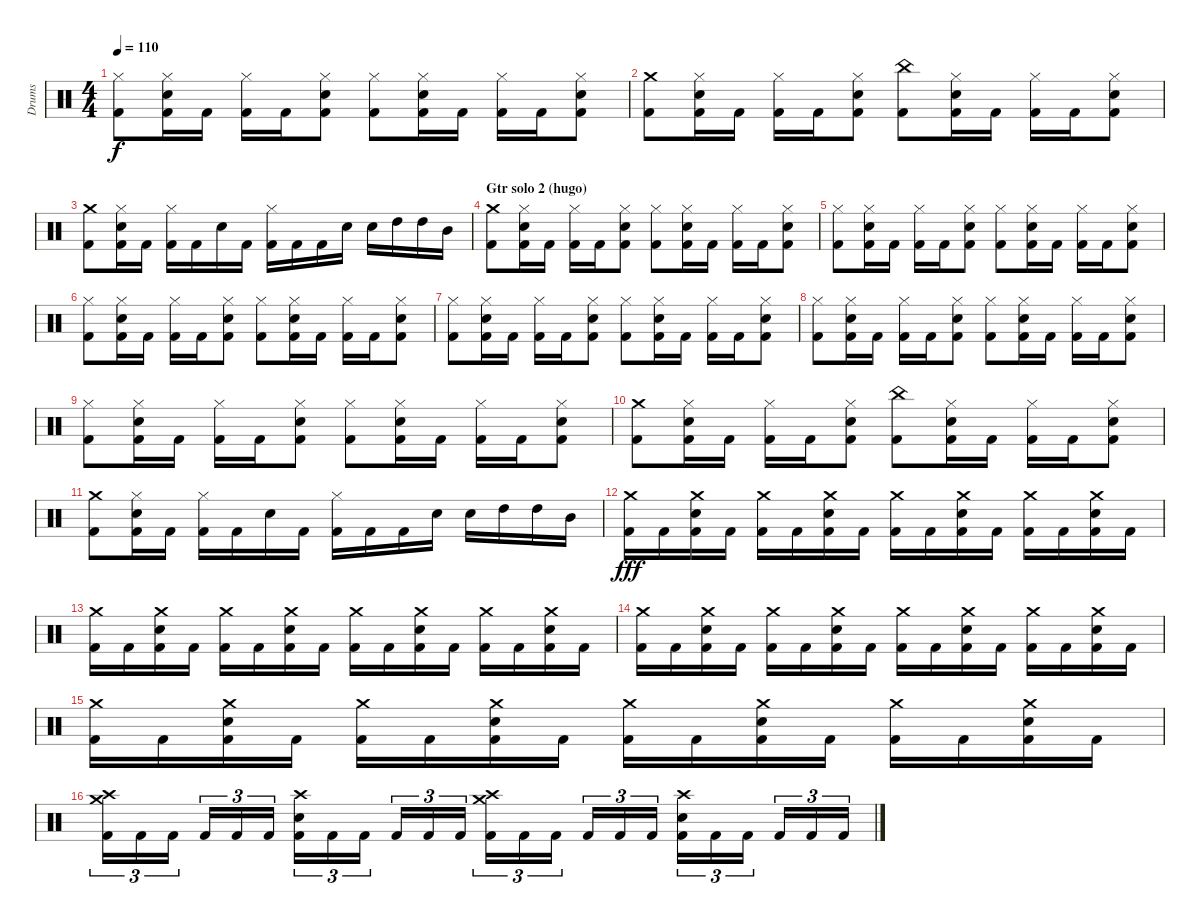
\track ("Drums" "Drums") {instrument percussion}
\staff {score}
\articulation defaults
\ts (4 4)
\tempo 110
\clef neutral
\ks c
("Hi-Hat (closed)" "Kick (hit) 2").8{dy f} ("Hi-Hat (closed)" "Electric Snare (hit)" "Kick (hit) 2").16 "Kick (hit) 2".16 ("Hi-Hat (closed)" "Kick (hit) 2").16 "Kick (hit) 2".16 ("Hi-Hat (closed)" "Electric Snare (hit)" "Kick (hit) 2").8 ("Hi-Hat (closed)" "Kick (hit) 2").8 ("Hi-Hat (closed)" "Electric Snare (hit)" "Kick (hit) 2").16 "Kick (hit) 2".16 ("Hi-Hat (closed)" "Kick (hit) 2").16 "Kick (hit) 2".16 ("Hi-Hat (closed)" "Electric Snare (hit)" "Kick (hit) 2").8 |
("Crash medium (hit)" "Kick (hit) 2").8 ("Hi-Hat (closed)" "Electric Snare (hit)" "Kick (hit) 2").16 "Kick (hit) 2".16 ("Hi-Hat (closed)" "Kick (hit) 2").16 "Kick (hit) 2".16 ("Hi-Hat (closed)" "Electric Snare (hit)" "Kick (hit) 2").8 ("China (hit)" "Kick (hit) 2").8 ("Hi-Hat (closed)" "Electric Snare (hit)" "Kick (hit) 2").16 "Kick (hit) 2".16 ("Hi-Hat (closed)" "Kick (hit) 2").16 "Kick (hit) 2".16 ("Hi-Hat (closed)" "Electric Snare (hit)" "Kick (hit) 2").8 |
("Crash medium (hit)" "Kick (hit) 2").8 ("Hi-Hat (closed)" "Electric Snare (hit)" "Kick (hit) 2").16 "Kick (hit) 2".16 ("Hi-Hat (closed)" "Kick (hit) 2").16 "Kick (hit) 2".16 "Electric Snare (hit)".16 "Kick (hit) 2".16 ("Hi-Hat (closed)" "Kick (hit) 2").16 "Kick (hit) 2".16 "Kick (hit) 2".16 "Electric Snare (hit)".16 "Electric Snare (hit)".16 "High Tom (hit)".16 "High Tom (hit)".16 "Mid Tom (hit)".16 |
\section ("" "Gtr solo 2 (hugo)")
("Crash medium (hit)" "Kick (hit) 2").8 ("Hi-Hat (closed)" "Electric Snare (hit)" "Kick (hit) 2").16 "Kick (hit) 2".16 ("Hi-Hat (closed)" "Kick (hit) 2").16 "Kick (hit) 2".16 ("Hi-Hat (closed)" "Electric Snare (hit)" "Kick (hit) 2").8 ("Hi-Hat (closed)" "Kick (hit) 2").8 ("Hi-Hat (closed)" "Electric Snare (hit)" "Kick (hit) 2").16 "Kick (hit) 2".16 ("Hi-Hat (closed)" "Kick (hit) 2").16 "Kick (hit) 2".16 ("Hi-Hat (closed)" "Electric Snare (hit)" "Kick (hit) 2").8 |
("Hi-Hat (closed)" "Kick (hit) 2").8 ("Hi-Hat (closed)" "Electric Snare (hit)" "Kick (hit) 2").16 "Kick (hit) 2".16 ("Hi-Hat (closed)" "Kick (hit) 2").16 "Kick (hit) 2".16 ("Hi-Hat (closed)" "Electric Snare (hit)" "Kick (hit) 2").8 ("Hi-Hat (closed)" "Kick (hit) 2").8 ("Hi-Hat (closed)" "Electric Snare (hit)" "Kick (hit) 2").16 "Kick (hit) 2".16 ("Hi-Hat (closed)" "Kick (hit) 2").16 "Kick (hit) 2".16 ("Hi-Hat (closed)" "Electric Snare (hit)" "Kick (hit) 2").8 |
("Hi-Hat (closed)" "Kick (hit) 2").8 ("Hi-Hat (closed)" "Electric Snare (hit)" "Kick (hit) 2").16 "Kick (hit) 2".16 ("Hi-Hat (closed)" "Kick (hit) 2").16 "Kick (hit) 2".16 ("Hi-Hat (closed)" "Electric Snare (hit)" "Kick (hit) 2").8 ("Hi-Hat (closed)" "Kick (hit) 2").8 ("Hi-Hat (closed)" "Electric Snare (hit)" "Kick (hit) 2").16 "Kick (hit) 2".16 ("Hi-Hat (closed)" "Kick (hit) 2").16 "Kick (hit) 2".16 ("Hi-Hat (closed)" "Electric Snare (hit)" "Kick (hit) 2").8 |
("Hi-Hat (closed)" "Kick (hit) 2").8 ("Hi-Hat (closed)" "Electric Snare (hit)" "Kick (hit) 2").16 "Kick (hit) 2".16 ("Hi-Hat (closed)" "Kick (hit) 2").16 "Kick (hit) 2".16 ("Hi-Hat (closed)" "Electric Snare (hit)" "Kick (hit) 2").8 ("Hi-Hat (closed)" "Kick (hit) 2").8 ("Hi-Hat (closed)" "Electric Snare (hit)" "Kick (hit) 2").16 "Kick (hit) 2".16 ("Hi-Hat (closed)" "Kick (hit) 2").16 "Kick (hit) 2".16 ("Hi-Hat (closed)" "Electric Snare (hit)" "Kick (hit) 2").8 |
("Hi-Hat (closed)" "Kick (hit) 2").8 ("Hi-Hat (closed)" "Electric Snare (hit)" "Kick (hit) 2").16 "Kick (hit) 2".16 ("Hi-Hat (closed)" "Kick (hit) 2").16 "Kick (hit) 2".16 ("Hi-Hat (closed)" "Electric Snare (hit)" "Kick (hit) 2").8 ("Hi-Hat (closed)" "Kick (hit) 2").8 ("Hi-Hat (closed)" "Electric Snare (hit)" "Kick (hit) 2").16 "Kick (hit) 2".16 ("Hi-Hat (closed)" "Kick (hit) 2").16 "Kick (hit) 2".16 ("Hi-Hat (closed)" "Electric Snare (hit)" "Kick (hit) 2").8 |
("Hi-Hat (closed)" "Kick (hit) 2").8 ("Hi-Hat (closed)" "Electric Snare (hit)" "Kick (hit) 2").16 "Kick (hit) 2".16 ("Hi-Hat (closed)" "Kick (hit) 2").16 "Kick (hit) 2".16 ("Hi-Hat (closed)" "Electric Snare (hit)" "Kick (hit) 2").8 ("Hi-Hat (closed)" "Kick (hit) 2").8 ("Hi-Hat (closed)" "Electric Snare (hit)" "Kick (hit) 2").16 "Kick (hit) 2".16 ("Hi-Hat (closed)" "Kick (hit) 2").16 "Kick (hit) 2".16 ("Hi-Hat (closed)" "Electric Snare (hit)" "Kick (hit) 2").8 |
("Crash medium (hit)" "Kick (hit) 2").8 ("Hi-Hat (closed)" "Electric Snare (hit)" "Kick (hit) 2").16 "Kick (hit) 2".16 ("Hi-Hat (closed)" "Kick (hit) 2").16 "Kick (hit) 2".16 ("Hi-Hat (closed)" "Electric Snare (hit)" "Kick (hit) 2").8 ("China (hit)" "Kick (hit) 2").8 ("Hi-Hat (closed)" "Electric Snare (hit)" "Kick (hit) 2").16 "Kick (hit) 2".16 ("Hi-Hat (closed)" "Kick (hit) 2").16 "Kick (hit) 2".16 ("Hi-Hat (closed)" "Electric Snare (hit)" "Kick (hit) 2").8 |
("Crash medium (hit)" "Kick (hit) 2").8 ("Hi-Hat (closed)" "Electric Snare (hit)" "Kick (hit) 2").16 "Kick (hit) 2".16 ("Hi-Hat (closed)" "Kick (hit) 2").16 "Kick (hit) 2".16 "Electric Snare (hit)".16 "Kick (hit) 2".16 ("Hi-Hat (closed)" "Kick (hit) 2").16 "Kick (hit) 2".16 "Kick (hit) 2".16 "Electric Snare (hit)".16 "Electric Snare (hit)".16 "High Tom (hit)".16 "High Tom (hit)".16 "Mid Tom (hit)".16 |
("Crash medium (hit)" "Kick (hit) 2").16{dy fff} "Kick (hit) 2".16 ("Crash medium (hit)" "Electric Snare (hit)" "Kick (hit) 2").16 "Kick (hit) 2".16 ("Crash medium (hit)" "Kick (hit) 2").16 "Kick (hit) 2".16 ("Crash medium (hit)" "Electric Snare (hit)" "Kick (hit) 2").16 "Kick (hit) 2".16 ("Crash medium (hit)" "Kick (hit) 2").16 "Kick (hit) 2".16 ("Crash medium (hit)" "Electric Snare (hit)" "Kick (hit) 2").16 "Kick (hit) 2".16 ("Crash medium (hit)" "Kick (hit) 2").16 "Kick (hit) 2".16 ("Crash medium (hit)" "Electric Snare (hit)" "Kick (hit) 2").16 "Kick (hit) 2".16 |
("Crash medium (hit)" "Kick (hit) 2").16 "Kick (hit) 2".16 ("Crash medium (hit)" "Electric Snare (hit)" "Kick (hit) 2").16 "Kick (hit) 2".16 ("Crash medium (hit)" "Kick (hit) 2").16 "Kick (hit) 2".16 ("Crash medium (hit)" "Electric Snare (hit)" "Kick (hit) 2").16 "Kick (hit) 2".16 ("Crash medium (hit)" "Kick (hit) 2").16 "Kick (hit) 2".16 ("Crash medium (hit)" "Electric Snare (hit)" "Kick (hit) 2").16 "Kick (hit) 2".16 ("Crash medium (hit)" "Kick (hit) 2").16 "Kick (hit) 2".16 ("Crash medium (hit)" "Electric Snare (hit)" "Kick (hit) 2").16 "Kick (hit) 2".16 |
("Crash medium (hit)" "Kick (hit) 2").16 "Kick (hit) 2".16 ("Crash medium (hit)" "Electric Snare (hit)" "Kick (hit) 2").16 "Kick (hit) 2".16 ("Crash medium (hit)" "Kick (hit) 2").16 "Kick (hit) 2".16 ("Crash medium (hit)" "Electric Snare (hit)" "Kick (hit) 2").16 "Kick (hit) 2".16 ("Crash medium (hit)" "Kick (hit) 2").16 "Kick (hit) 2".16 ("Crash medium (hit)" "Electric Snare (hit)" "Kick (hit) 2").16 "Kick (hit) 2".16 ("Crash medium (hit)" "Kick (hit) 2").16 "Kick (hit) 2".16 ("Crash medium (hit)" "Electric Snare (hit)" "Kick (hit) 2").16 "Kick (hit) 2".16 |
("Crash medium (hit)" "Kick (hit) 2").16 "Kick (hit) 2".16 ("Crash medium (hit)" "Electric Snare (hit)" "Kick (hit) 2").16 "Kick (hit) 2".16 ("Crash medium (hit)" "Kick (hit) 2").16 "Kick (hit) 2".16 ("Crash medium (hit)" "Electric Snare (hit)" "Kick (hit) 2").16 "Kick (hit) 2".16 ("Crash medium (hit)" "Kick (hit) 2").16 "Kick (hit) 2".16 ("Crash medium (hit)" "Electric Snare (hit)" "Kick (hit) 2").16 "Kick (hit) 2".16 ("Crash medium (hit)" "Kick (hit) 2").16 "Kick (hit) 2".16 ("Crash medium (hit)" "Electric Snare (hit)" "Kick (hit) 2").16 "Kick (hit) 2".16 |
("Crash high (hit)" "Crash medium (hit)" "Kick (hit) 2").16{tu (3 2)} "Kick (hit) 2".16{tu (3 2)} "Kick (hit) 2".16{tu (3 2)} "Kick (hit) 2".16{tu (3 2)} "Kick (hit) 2".16{tu (3 2)} "Kick (hit) 2".16{tu (3 2)} ("Crash high (hit)" "Electric Snare (hit)" "Kick (hit) 2").16{tu (3 2)} "Kick (hit) 2".16{tu (3 2)} "Kick (hit) 2".16{tu (3 2)} "Kick (hit) 2".16{tu (3 2)} "Kick (hit) 2".16{tu (3 2)} "Kick (hit) 2".16{tu (3 2)} ("Crash high (hit)" "Crash medium (hit)" "Kick (hit) 2").16{tu (3 2)} "Kick (hit) 2".16{tu (3 2)} "Kick (hit) 2".16{tu (3 2)} "Kick (hit) 2".16{tu (3 2)} "Kick (hit) 2".16{tu (3 2)} "Kick (hit) 2".16{tu (3 2)} ("Crash high (hit)" "Electric Snare (hit)" "Kick (hit) 2").16{tu (3 2)} "Kick (hit) 2".16{tu (3 2)} "Kick (hit) 2".16{tu (3 2)} "Kick (hit) 2".16{tu (3 2)} "Kick (hit) 2".16{tu (3 2)} "Kick (hit) 2".16{tu (3 2)}
